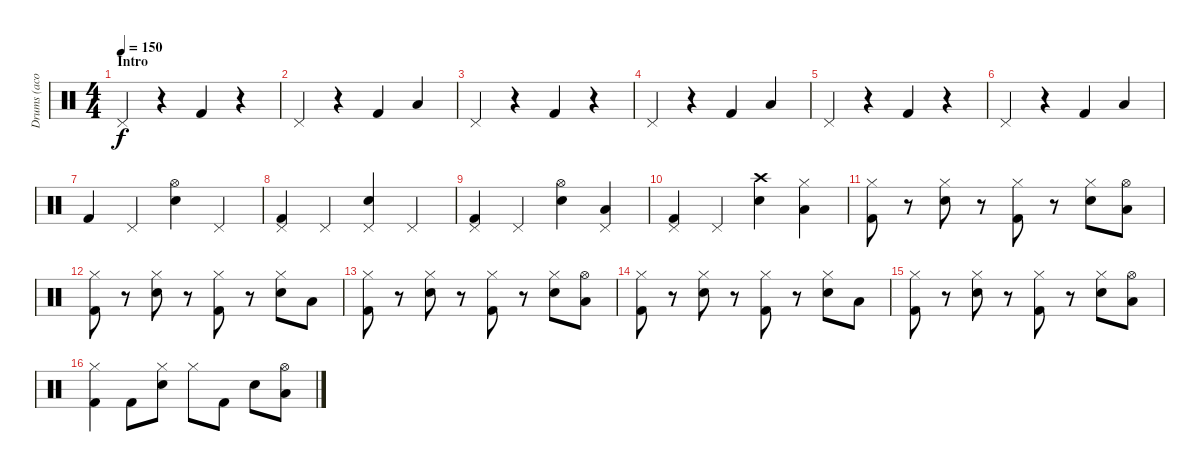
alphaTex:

\track ("Drums (acoustic drumset)" "Drums (aco") {instrument percussion}
\staff {score}
\articulation defaults
\ts (4 4)
\section ("" "Intro")
\tempo 150
\clef neutral
\ks c "Pedal Hi-Hat (hit)".4{dy f}
r.4 "Kick (hit) 2".4 r.4 |
"Pedal Hi-Hat (hit)".4 r.4 "Kick (hit) 2".4 "Low Floor Tom (hit)".4 |
"Pedal Hi-Hat (hit)".4 r.4 "Kick (hit) 2".4 r.4 |
"Pedal Hi-Hat (hit)".4 r.4 "Kick (hit) 2".4 "Low Floor Tom (hit)".4 |
"Pedal Hi-Hat (hit)".4 r.4 "Kick (hit) 2".4 r.4 |
"Pedal Hi-Hat (hit)".4 r.4 "Kick (hit) 2".4 "Low Floor Tom (hit)".4 |
"Kick (hit) 2".4 "Pedal Hi-Hat (hit)".4 ("Hi-Hat (open)" "Electric Snare (hit)").4 "Pedal Hi-Hat (hit)".4 |
("Pedal Hi-Hat (hit)" "Kick (hit) 2").4 "Pedal Hi-Hat (hit)".4 ("Pedal Hi-Hat (hit)" "Electric Snare (hit)").4 "Pedal Hi-Hat (hit)".4 |
("Pedal Hi-Hat (hit)" "Kick (hit) 2").4 "Pedal Hi-Hat (hit)".4 ("Hi-Hat (open)" "Electric Snare (hit)").4 ("Pedal Hi-Hat (hit)" "Low Floor Tom (hit)").4 |
("Pedal Hi-Hat (hit)" "Kick (hit) 2").4 "Pedal Hi-Hat (hit)".4 ("Crash high (hit)" "Electric Snare (hit)").4 ("Hi-Hat (closed)" "Low Floor Tom (hit)").4 |
("Hi-Hat (closed)" "Kick (hit) 2").8 r.8 ("Hi-Hat (closed)" "Electric Snare (hit)").8 r.8 ("Hi-Hat (closed)" "Kick (hit) 2").8 r.8 ("Hi-Hat (closed)" "Electric Snare (hit)").8 ("Hi-Hat (open)" "Low Floor Tom (hit)").8 |
("Hi-Hat (closed)" "Kick (hit) 2").8 r.8 ("Hi-Hat (closed)" "Electric Snare (hit)").8 r.8 ("Hi-Hat (closed)" "Kick (hit) 2").8 r.8 ("Hi-Hat (closed)" "Electric Snare (hit)").8 "Low Floor Tom (hit)".8 |
("Hi-Hat (closed)" "Kick (hit) 2").8 r.8 ("Hi-Hat (closed)" "Electric Snare (hit)").8 r.8 ("Hi-Hat (closed)" "Kick (hit) 2").8 r.8 ("Hi-Hat (closed)" "Electric Snare (hit)").8 ("Hi-Hat (open)" "Low Floor Tom (hit)").8 |
("Hi-Hat (closed)" "Kick (hit) 2").8 r.8 ("Hi-Hat (closed)" "Electric Snare (hit)").8 r.8 ("Hi-Hat (closed)" "Kick (hit) 2").8 r.8 ("Hi-Hat (closed)" "Electric Snare (hit)").8 "Low Floor Tom (hit)".8 |
("Hi-Hat (closed)" "Kick (hit) 2").8 r.8 ("Hi-Hat (closed)" "Electric Snare (hit)").8 r.8 ("Hi-Hat (closed)" "Kick (hit) 2").8 r.8 ("Hi-Hat (closed)" "Electric Snare (hit)").8 ("Hi-Hat (open)" "Low Floor Tom (hit)").8 |
("Hi-Hat (closed)" "Kick (hit) 2").4 "Kick (hit) 2".8 ("Hi-Hat (closed)" "Electric Snare (hit)").8 "Hi-Hat (closed)".8 "Kick (hit) 2".8 "Electric Snare (hit)".8 ("Hi-Hat (open)" "Low Floor Tom (hit)").8
